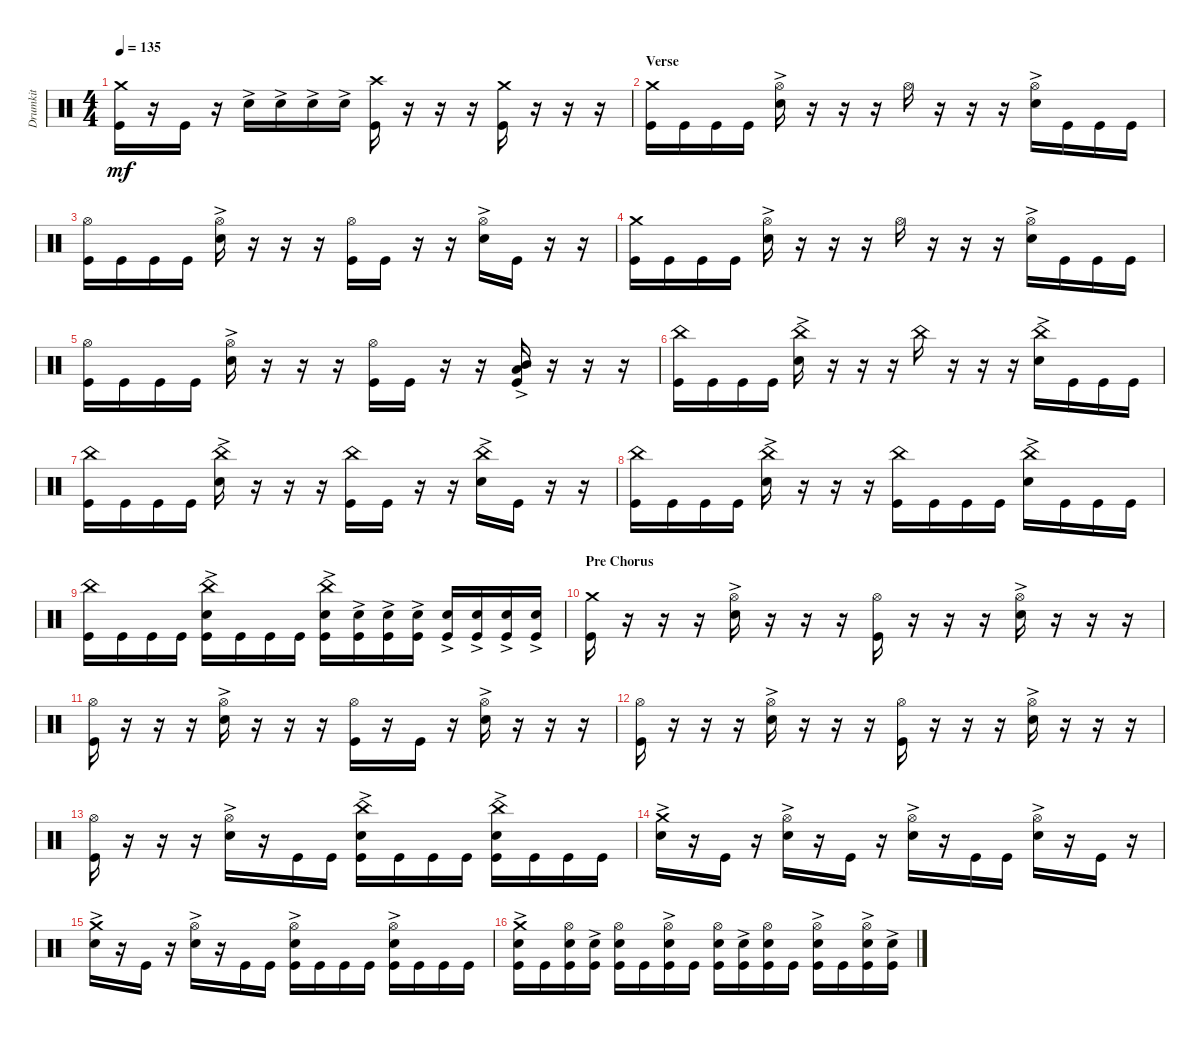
\track ("Drumkit" "Drumkit") {instrument percussion}
\staff {score}
\articulation defaults
\ts (4 4)
\tempo 135
\clef neutral
\ks c
("Kick (hit)" "Crash medium (hit)").16{dy mf} r.16 "Kick (hit)".16 r.16 "Snare (hit) 2"{ac}.16 "Snare (hit) 2"{ac}.16 "Snare (hit) 2"{ac}.16 "Snare (hit) 2"{ac}.16 ("Kick (hit)" "Crash high (hit)").16 r.16 r.16 r.16 ("Kick (hit)" "Crash medium (hit)").16 r.16 r.16 r.16 |
\section ("" "Verse")
("Crash medium (hit)" "Kick (hit)").16 "Kick (hit)".16 "Kick (hit)".16 "Kick (hit)".16 ("Hi-Hat (open)" "Snare (hit) 2"{ac}).16 r.16 r.16 r.16 "Hi-Hat (open)".16 r.16 r.16 r.16 ("Hi-Hat (open)" "Snare (hit) 2"{ac}).16 "Kick (hit)".16 "Kick (hit)".16 "Kick (hit)".16 |
("Kick (hit)" "Hi-Hat (open)").16 "Kick (hit)".16 "Kick (hit)".16 "Kick (hit)".16 ("Snare (hit) 2"{ac} "Hi-Hat (open)").16 r.16 r.16 r.16 ("Kick (hit)" "Hi-Hat (open)").16 "Kick (hit)".16 r.16 r.16 ("Snare (hit) 2"{ac} "Hi-Hat (open)").16 "Kick (hit)".16 r.16 r.16 |
("Crash medium (hit)" "Kick (hit)").16 "Kick (hit)".16 "Kick (hit)".16 "Kick (hit)".16 ("Hi-Hat (open)" "Snare (hit) 2"{ac}).16 r.16 r.16 r.16 "Hi-Hat (open)".16 r.16 r.16 r.16 ("Hi-Hat (open)" "Snare (hit) 2"{ac}).16 "Kick (hit)".16 "Kick (hit)".16 "Kick (hit)".16 |
("Kick (hit)" "Hi-Hat (open)").16 "Kick (hit)".16 "Kick (hit)".16 "Kick (hit)".16 ("Snare (hit) 2"{ac} "Hi-Hat (open)").16 r.16 r.16 r.16 ("Kick (hit)" "Hi-Hat (open)").16 "Kick (hit)".16 r.16 r.16 ("Low Tom (hit)"{ac} "Mid Tom (hit)"{ac} "Kick (hit)").16 r.16 r.16 r.16 |
("Kick (hit)" "China (hit)").16 "Kick (hit)".16 "Kick (hit)".16 "Kick (hit)".16 ("Snare (hit) 2"{ac} "China (hit)").16 r.16 r.16 r.16 "China (hit)".16 r.16 r.16 r.16 ("Snare (hit) 2"{ac} "China (hit)").16 "Kick (hit)".16 "Kick (hit)".16 "Kick (hit)".16 |
("Kick (hit)" "China (hit)").16 "Kick (hit)".16 "Kick (hit)".16 "Kick (hit)".16 ("Snare (hit) 2"{ac} "China (hit)").16 r.16 r.16 r.16 ("Kick (hit)" "China (hit)").16 "Kick (hit)".16 r.16 r.16 ("Snare (hit) 2"{ac} "China (hit)").16 "Kick (hit)".16 r.16 r.16 |
("Kick (hit)" "China (hit)").16 "Kick (hit)".16 "Kick (hit)".16 "Kick (hit)".16 ("Snare (hit) 2"{ac} "China (hit)").16 r.16 r.16 r.16 ("China (hit)" "Kick (hit)").16 "Kick (hit)".16 "Kick (hit)".16 "Kick (hit)".16 ("Snare (hit) 2"{ac} "China (hit)").16 "Kick (hit)".16 "Kick (hit)".16 "Kick (hit)".16 |
("Kick (hit)" "China (hit)").16 "Kick (hit)".16 "Kick (hit)".16 "Kick (hit)".16 ("Snare (hit) 2"{ac} "China (hit)" "Kick (hit)").16 "Kick (hit)".16 "Kick (hit)".16 "Kick (hit)".16 ("Kick (hit)" "China (hit)" "Snare (hit) 2"{ac}).16 ("Kick (hit)" "Snare (hit) 2"{ac}).16 ("Kick (hit)" "Snare (hit) 2"{ac}).16 ("Kick (hit)" "Snare (hit) 2"{ac}).16 ("Snare (hit) 2"{ac} "Kick (hit)").16 ("Kick (hit)" "Snare (hit) 2"{ac}).16 ("Kick (hit)" "Snare (hit) 2"{ac}).16 ("Kick (hit)" "Snare (hit) 2"{ac}).16 |
\section ("" "Pre Chorus")
("Crash medium (hit)" "Kick (hit)").16 r.16 r.16 r.16 ("Hi-Hat (open)" "Snare (hit) 2"{ac}).16 r.16 r.16 r.16 ("Hi-Hat (open)" "Kick (hit)").16 r.16 r.16 r.16 ("Hi-Hat (open)" "Snare (hit) 2"{ac}).16 r.16 r.16 r.16 |
("Kick (hit)" "Hi-Hat (open)").16 r.16 r.16 r.16 ("Hi-Hat (open)" "Snare (hit) 2"{ac}).16 r.16 r.16 r.16 ("Hi-Hat (open)" "Kick (hit)").16 r.16 "Kick (hit)".16 r.16 ("Hi-Hat (open)" "Snare (hit) 2"{ac}).16 r.16 r.16 r.16 |
("Kick (hit)" "Hi-Hat (open)").16 r.16 r.16 r.16 ("Hi-Hat (open)" "Snare (hit) 2"{ac}).16 r.16 r.16 r.16 ("Hi-Hat (open)" "Kick (hit)").16 r.16 r.16 r.16 ("Hi-Hat (open)" "Snare (hit) 2"{ac}).16 r.16 r.16 r.16 |
("Kick (hit)" "Hi-Hat (open)").16 r.16 r.16 r.16 ("Hi-Hat (open)" "Snare (hit) 2"{ac}).16 r.16 "Kick (hit)".16 "Kick (hit)".16 ("Snare (hit) 2"{ac} "Kick (hit)" "China (hit)").16 "Kick (hit)".16 "Kick (hit)".16 "Kick (hit)".16 ("Snare (hit) 2"{ac} "Kick (hit)" "China (hit)").16 "Kick (hit)".16 "Kick (hit)".16 "Kick (hit)".16 |
("Crash medium (hit)" "Snare (hit) 2"{ac}).16 r.16 "Kick (hit)".16 r.16 ("Hi-Hat (open)" "Snare (hit) 2"{ac}).16 r.16 "Kick (hit)".16 r.16 ("Hi-Hat (open)" "Snare (hit) 2"{ac}).16 r.16 "Kick (hit)".16 "Kick (hit)".16 ("Hi-Hat (open)" "Snare (hit) 2"{ac}).16 r.16 "Kick (hit)".16 r.16 |
("Crash medium (hit)" "Snare (hit) 2"{ac}).16 r.16 "Kick (hit)".16 r.16 ("Hi-Hat (open)" "Snare (hit) 2"{ac}).16 r.16 "Kick (hit)".16 "Kick (hit)".16 ("Kick (hit)" "Snare (hit) 2"{ac} "Hi-Hat (open)").16 "Kick (hit)".16 "Kick (hit)".16 "Kick (hit)".16 ("Kick (hit)" "Snare (hit) 2"{ac} "Hi-Hat (open)").16 "Kick (hit)".16 "Kick (hit)".16 "Kick (hit)".16 |
("Kick (hit)" "Snare (hit) 2"{ac} "Crash medium (hit)").16 "Kick (hit)".16 ("Kick (hit)" "Hi-Hat (open)" "Snare (hit) 2").16 ("Kick (hit)" "Snare (hit) 2"{ac}).16 ("Kick (hit)" "Hi-Hat (open)" "Snare (hit) 2").16 "Kick (hit)".16 ("Kick (hit)" "Snare (hit) 2"{ac} "Hi-Hat (open)").16 "Kick (hit)".16 ("Kick (hit)" "Hi-Hat (open)" "Snare (hit) 2").16 ("Kick (hit)" "Snare (hit) 2"{ac}).16 ("Kick (hit)" "Hi-Hat (open)" "Snare (hit) 2").16 "Kick (hit)".16 ("Kick (hit)" "Snare (hit) 2"{ac} "Hi-Hat (open)").16 "Kick (hit)".16 ("Kick (hit)" "Snare (hit) 2"{ac} "Hi-Hat (open)").16 ("Kick (hit)" "Snare (hit) 2"{ac}).16
